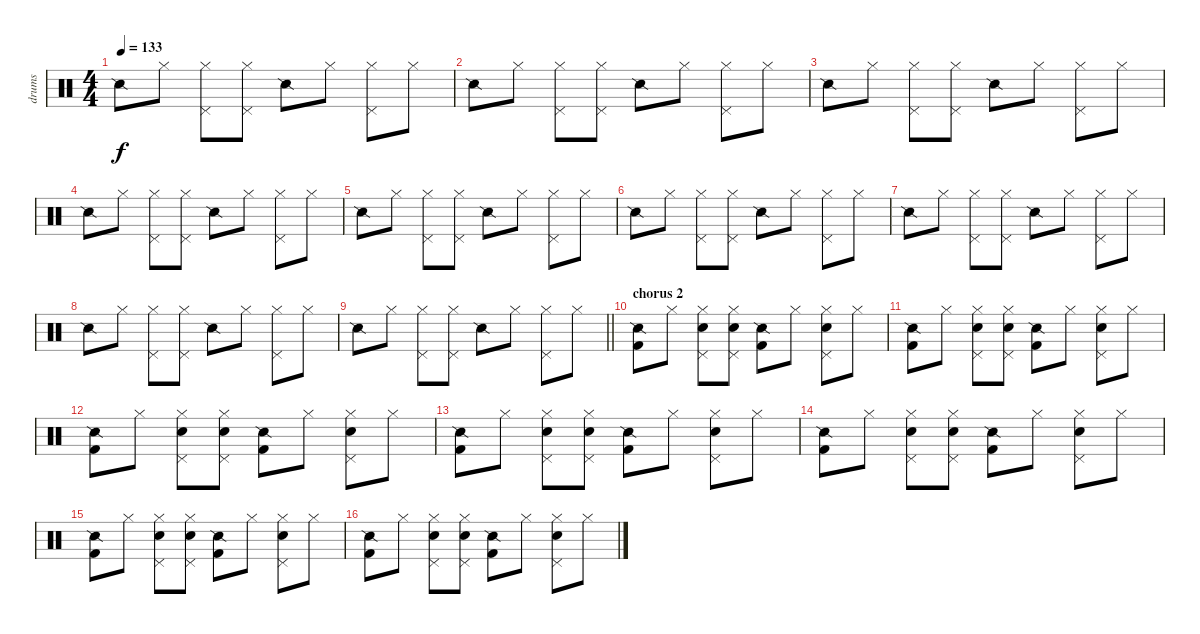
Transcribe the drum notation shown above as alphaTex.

\track ("drums" "drums") {instrument percussion}
\staff {score}
\articulation defaults
\ts (4 4)
\tempo 133
\clef neutral
\ks c "Snare (side stick) 2".8{dy f} "Hi-Hat (closed)".8
("Hi-Hat (closed)" "Pedal Hi-Hat (hit)").8 ("Hi-Hat (closed)" "Pedal Hi-Hat (hit)").8 "Snare (side stick) 2".8 "Hi-Hat (closed)".8 ("Hi-Hat (closed)" "Pedal Hi-Hat (hit)").8 "Hi-Hat (closed)".8 |
"Snare (side stick) 2".8 "Hi-Hat (closed)".8 ("Hi-Hat (closed)" "Pedal Hi-Hat (hit)").8 ("Hi-Hat (closed)" "Pedal Hi-Hat (hit)").8 "Snare (side stick) 2".8 "Hi-Hat (closed)".8 ("Hi-Hat (closed)" "Pedal Hi-Hat (hit)").8 "Hi-Hat (closed)".8 |
"Snare (side stick) 2".8 "Hi-Hat (closed)".8 ("Hi-Hat (closed)" "Pedal Hi-Hat (hit)").8 ("Hi-Hat (closed)" "Pedal Hi-Hat (hit)").8 "Snare (side stick) 2".8 "Hi-Hat (closed)".8 ("Hi-Hat (closed)" "Pedal Hi-Hat (hit)").8 "Hi-Hat (closed)".8 |
"Snare (side stick) 2".8 "Hi-Hat (closed)".8 ("Hi-Hat (closed)" "Pedal Hi-Hat (hit)").8 ("Hi-Hat (closed)" "Pedal Hi-Hat (hit)").8 "Snare (side stick) 2".8 "Hi-Hat (closed)".8 ("Hi-Hat (closed)" "Pedal Hi-Hat (hit)").8 "Hi-Hat (closed)".8 |
"Snare (side stick) 2".8 "Hi-Hat (closed)".8 ("Hi-Hat (closed)" "Pedal Hi-Hat (hit)").8 ("Hi-Hat (closed)" "Pedal Hi-Hat (hit)").8 "Snare (side stick) 2".8 "Hi-Hat (closed)".8 ("Hi-Hat (closed)" "Pedal Hi-Hat (hit)").8 "Hi-Hat (closed)".8 |
"Snare (side stick) 2".8 "Hi-Hat (closed)".8 ("Hi-Hat (closed)" "Pedal Hi-Hat (hit)").8 ("Hi-Hat (closed)" "Pedal Hi-Hat (hit)").8 "Snare (side stick) 2".8 "Hi-Hat (closed)".8 ("Hi-Hat (closed)" "Pedal Hi-Hat (hit)").8 "Hi-Hat (closed)".8 |
"Snare (side stick) 2".8 "Hi-Hat (closed)".8 ("Hi-Hat (closed)" "Pedal Hi-Hat (hit)").8 ("Hi-Hat (closed)" "Pedal Hi-Hat (hit)").8 "Snare (side stick) 2".8 "Hi-Hat (closed)".8 ("Hi-Hat (closed)" "Pedal Hi-Hat (hit)").8 "Hi-Hat (closed)".8 |
"Snare (side stick) 2".8 "Hi-Hat (closed)".8 ("Hi-Hat (closed)" "Pedal Hi-Hat (hit)").8 ("Hi-Hat (closed)" "Pedal Hi-Hat (hit)").8 "Snare (side stick) 2".8 "Hi-Hat (closed)".8 ("Hi-Hat (closed)" "Pedal Hi-Hat (hit)").8 "Hi-Hat (closed)".8 |
\barLineRight lightlight "Snare (side stick) 2".8 "Hi-Hat (closed)".8
("Hi-Hat (closed)" "Pedal Hi-Hat (hit)").8 ("Hi-Hat (closed)" "Pedal Hi-Hat (hit)").8 "Snare (side stick) 2".8 "Hi-Hat (closed)".8 ("Hi-Hat (closed)" "Pedal Hi-Hat (hit)").8 "Hi-Hat (closed)".8 |
\section ("" "chorus 2")
("Snare (side stick) 2" "Kick (hit) 2").8 "Hi-Hat (closed)".8 ("Hi-Hat (closed)" "Electric Snare (hit)" "Pedal Hi-Hat (hit)").8 ("Hi-Hat (closed)" "Electric Snare (hit)" "Pedal Hi-Hat (hit)").8 ("Snare (side stick) 2" "Kick (hit) 2").8 "Hi-Hat (closed)".8 ("Hi-Hat (closed)" "Electric Snare (hit)" "Pedal Hi-Hat (hit)").8 "Hi-Hat (closed)".8 |
("Snare (side stick) 2" "Kick (hit) 2").8 "Hi-Hat (closed)".8 ("Hi-Hat (closed)" "Electric Snare (hit)" "Pedal Hi-Hat (hit)").8 ("Hi-Hat (closed)" "Electric Snare (hit)" "Pedal Hi-Hat (hit)").8 ("Snare (side stick) 2" "Kick (hit) 2").8 "Hi-Hat (closed)".8 ("Hi-Hat (closed)" "Electric Snare (hit)" "Pedal Hi-Hat (hit)").8 "Hi-Hat (closed)".8 |
("Snare (side stick) 2" "Kick (hit) 2").8 "Hi-Hat (closed)".8 ("Hi-Hat (closed)" "Electric Snare (hit)" "Pedal Hi-Hat (hit)").8 ("Hi-Hat (closed)" "Electric Snare (hit)" "Pedal Hi-Hat (hit)").8 ("Snare (side stick) 2" "Kick (hit) 2").8 "Hi-Hat (closed)".8 ("Hi-Hat (closed)" "Electric Snare (hit)" "Pedal Hi-Hat (hit)").8 "Hi-Hat (closed)".8 |
("Snare (side stick) 2" "Kick (hit) 2").8 "Hi-Hat (closed)".8 ("Hi-Hat (closed)" "Electric Snare (hit)" "Pedal Hi-Hat (hit)").8 ("Hi-Hat (closed)" "Electric Snare (hit)" "Pedal Hi-Hat (hit)").8 ("Snare (side stick) 2" "Kick (hit) 2").8 "Hi-Hat (closed)".8 ("Hi-Hat (closed)" "Electric Snare (hit)" "Pedal Hi-Hat (hit)").8 "Hi-Hat (closed)".8 |
("Snare (side stick) 2" "Kick (hit) 2").8 "Hi-Hat (closed)".8 ("Hi-Hat (closed)" "Electric Snare (hit)" "Pedal Hi-Hat (hit)").8 ("Hi-Hat (closed)" "Electric Snare (hit)" "Pedal Hi-Hat (hit)").8 ("Snare (side stick) 2" "Kick (hit) 2").8 "Hi-Hat (closed)".8 ("Hi-Hat (closed)" "Electric Snare (hit)" "Pedal Hi-Hat (hit)").8 "Hi-Hat (closed)".8 |
("Snare (side stick) 2" "Kick (hit) 2").8 "Hi-Hat (closed)".8 ("Hi-Hat (closed)" "Electric Snare (hit)" "Pedal Hi-Hat (hit)").8 ("Hi-Hat (closed)" "Electric Snare (hit)" "Pedal Hi-Hat (hit)").8 ("Snare (side stick) 2" "Kick (hit) 2").8 "Hi-Hat (closed)".8 ("Hi-Hat (closed)" "Electric Snare (hit)" "Pedal Hi-Hat (hit)").8 "Hi-Hat (closed)".8 |
("Snare (side stick) 2" "Kick (hit) 2").8 "Hi-Hat (closed)".8 ("Hi-Hat (closed)" "Electric Snare (hit)" "Pedal Hi-Hat (hit)").8 ("Hi-Hat (closed)" "Electric Snare (hit)" "Pedal Hi-Hat (hit)").8 ("Snare (side stick) 2" "Kick (hit) 2").8 "Hi-Hat (closed)".8 ("Hi-Hat (closed)" "Electric Snare (hit)" "Pedal Hi-Hat (hit)").8 "Hi-Hat (closed)".8
